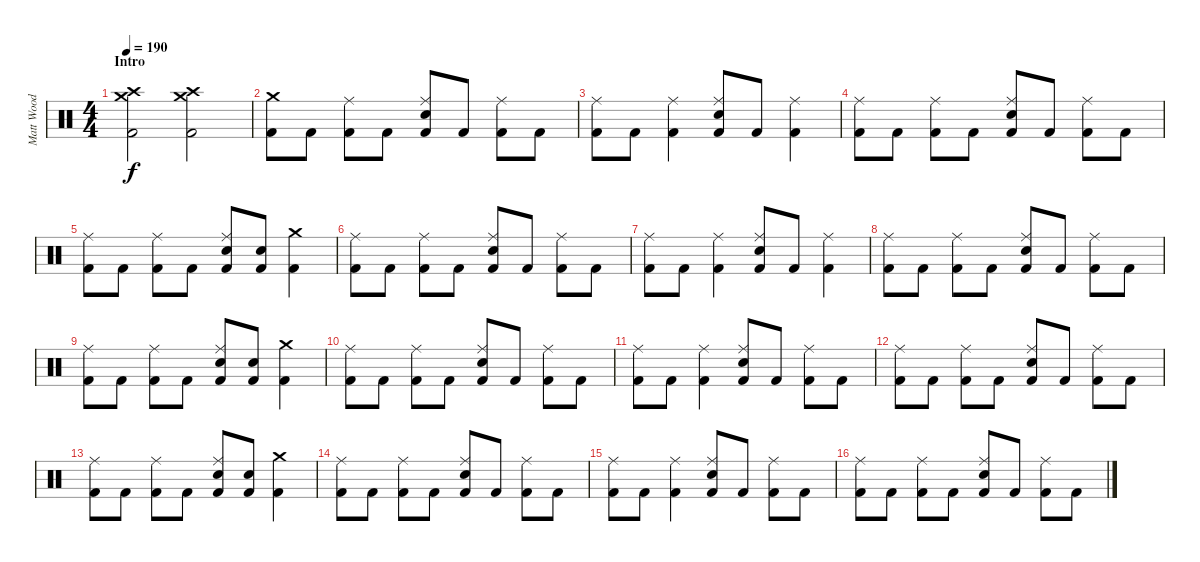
\track ("Matt Wood" "Matt Wood") {instrument percussion}
\staff {score}
\articulation defaults
\ts (4 4)
\section ("" "Intro")
\tempo 190
\clef neutral
\ks c
("Crash medium (hit)" "Crash high (hit)" "Kick (hit) 2").2{dy f} ("Crash medium (hit)" "Crash high (hit)" "Kick (hit) 2").2 |
("Crash medium (hit)" "Kick (hit) 2").8 "Kick (hit) 2".8 ("Ride (middle)" "Kick (hit) 2").8 "Kick (hit) 2".8 ("Ride (middle)" "Snare (hit) 2" "Kick (hit) 2").8 "Kick (hit) 2".8 ("Ride (middle)" "Kick (hit) 2").8 "Kick (hit) 2".8 |
("Ride (middle)" "Kick (hit) 2").8 "Kick (hit) 2".8 ("Ride (middle)" "Kick (hit) 2").4 ("Ride (middle)" "Snare (hit) 2" "Kick (hit) 2").8 "Kick (hit) 2".8 ("Ride (middle)" "Kick (hit) 2").4 |
("Ride (middle)" "Kick (hit) 2").8 "Kick (hit) 2".8 ("Ride (middle)" "Kick (hit) 2").8 "Kick (hit) 2".8 ("Ride (middle)" "Snare (hit) 2" "Kick (hit) 2").8 "Kick (hit) 2".8 ("Ride (middle)" "Kick (hit) 2").8 "Kick (hit) 2".8 |
("Ride (middle)" "Kick (hit) 2").8 "Kick (hit) 2".8 ("Ride (middle)" "Kick (hit) 2").8 "Kick (hit) 2".8 ("Ride (middle)" "Snare (hit) 2" "Kick (hit) 2").8 ("Snare (hit) 2" "Kick (hit) 2").8 ("Crash medium (hit)" "Kick (hit) 2").4 |
("Ride (middle)" "Kick (hit) 2").8 "Kick (hit) 2".8 ("Ride (middle)" "Kick (hit) 2").8 "Kick (hit) 2".8 ("Ride (middle)" "Snare (hit) 2" "Kick (hit) 2").8 "Kick (hit) 2".8 ("Ride (middle)" "Kick (hit) 2").8 "Kick (hit) 2".8 |
("Ride (middle)" "Kick (hit) 2").8 "Kick (hit) 2".8 ("Ride (middle)" "Kick (hit) 2").4 ("Ride (middle)" "Snare (hit) 2" "Kick (hit) 2").8 "Kick (hit) 2".8 ("Ride (middle)" "Kick (hit) 2").4 |
("Ride (middle)" "Kick (hit) 2").8 "Kick (hit) 2".8 ("Ride (middle)" "Kick (hit) 2").8 "Kick (hit) 2".8 ("Ride (middle)" "Snare (hit) 2" "Kick (hit) 2").8 "Kick (hit) 2".8 ("Ride (middle)" "Kick (hit) 2").8 "Kick (hit) 2".8 |
("Ride (middle)" "Kick (hit) 2").8 "Kick (hit) 2".8 ("Ride (middle)" "Kick (hit) 2").8 "Kick (hit) 2".8 ("Ride (middle)" "Snare (hit) 2" "Kick (hit) 2").8 ("Snare (hit) 2" "Kick (hit) 2").8 ("Crash medium (hit)" "Kick (hit) 2").4 |
("Ride (middle)" "Kick (hit) 2").8 "Kick (hit) 2".8 ("Ride (middle)" "Kick (hit) 2").8 "Kick (hit) 2".8 ("Ride (middle)" "Snare (hit) 2" "Kick (hit) 2").8 "Kick (hit) 2".8 ("Ride (middle)" "Kick (hit) 2").8 "Kick (hit) 2".8 |
("Ride (middle)" "Kick (hit) 2").8 "Kick (hit) 2".8 ("Ride (middle)" "Kick (hit) 2").4 ("Ride (middle)" "Snare (hit) 2" "Kick (hit) 2").8 "Kick (hit) 2".8 ("Ride (middle)" "Kick (hit) 2").8 "Kick (hit) 2".8 |
("Ride (middle)" "Kick (hit) 2").8 "Kick (hit) 2".8 ("Ride (middle)" "Kick (hit) 2").8 "Kick (hit) 2".8 ("Ride (middle)" "Snare (hit) 2" "Kick (hit) 2").8 "Kick (hit) 2".8 ("Ride (middle)" "Kick (hit) 2").8 "Kick (hit) 2".8 |
("Ride (middle)" "Kick (hit) 2").8 "Kick (hit) 2".8 ("Ride (middle)" "Kick (hit) 2").8 "Kick (hit) 2".8 ("Ride (middle)" "Snare (hit) 2" "Kick (hit) 2").8 ("Snare (hit) 2" "Kick (hit) 2").8 ("Crash medium (hit)" "Kick (hit) 2").4 |
("Ride (middle)" "Kick (hit) 2").8 "Kick (hit) 2".8 ("Ride (middle)" "Kick (hit) 2").8 "Kick (hit) 2".8 ("Ride (middle)" "Snare (hit) 2" "Kick (hit) 2").8 "Kick (hit) 2".8 ("Ride (middle)" "Kick (hit) 2").8 "Kick (hit) 2".8 |
("Ride (middle)" "Kick (hit) 2").8 "Kick (hit) 2".8 ("Ride (middle)" "Kick (hit) 2").4 ("Ride (middle)" "Snare (hit) 2" "Kick (hit) 2").8 "Kick (hit) 2".8 ("Ride (middle)" "Kick (hit) 2").8 "Kick (hit) 2".8 |
("Ride (middle)" "Kick (hit) 2").8 "Kick (hit) 2".8 ("Ride (middle)" "Kick (hit) 2").8 "Kick (hit) 2".8 ("Ride (middle)" "Snare (hit) 2" "Kick (hit) 2").8 "Kick (hit) 2".8 ("Ride (middle)" "Kick (hit) 2").8 "Kick (hit) 2".8
